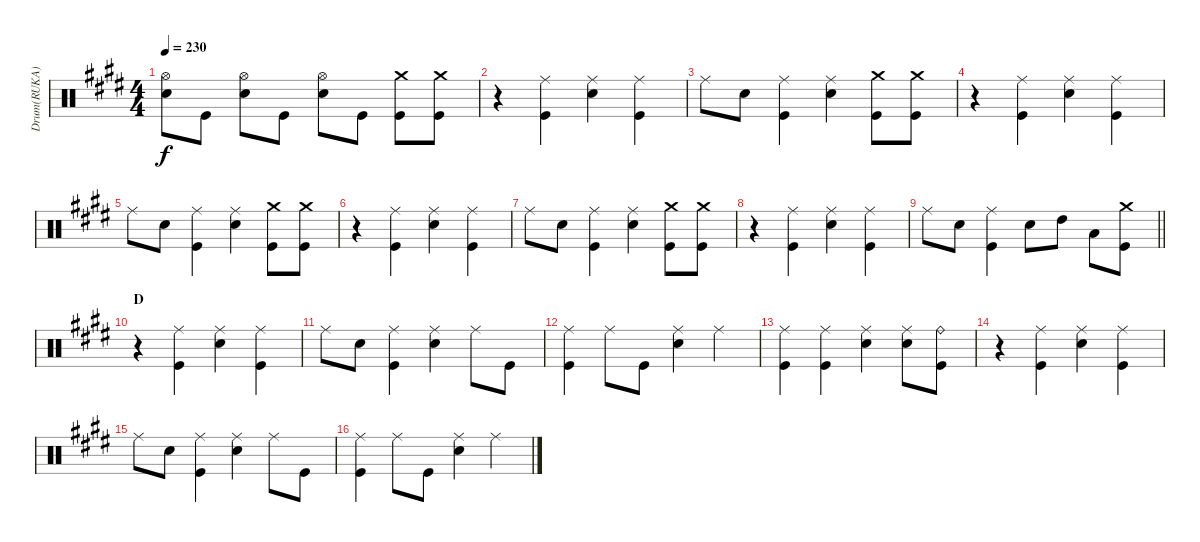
\track ("Drum(RUKA)" "Drum(RUKA)") {instrument percussion}
\staff {score}
\articulation defaults
\ts (4 4)
\tempo 230
\clef neutral
\ks e
("Hi-Hat (open)" "Electric Snare (hit)").8{dy f} "Kick (hit)".8 ("Hi-Hat (open)" "Electric Snare (hit)").8 "Kick (hit)".8 ("Hi-Hat (open)" "Electric Snare (hit)").8 "Kick (hit)".8 ("Crash medium (hit)" "Kick (hit)").8 ("Crash medium (hit)" "Kick (hit)").8 |
r.4 ("Ride (middle)" "Kick (hit)").4 ("Ride (middle)" "Electric Snare (hit)").4 ("Ride (middle)" "Kick (hit)").4 |
"Ride (middle)".8 "Electric Snare (hit)".8 ("Ride (middle)" "Kick (hit)").4 ("Ride (middle)" "Electric Snare (hit)").4 ("Crash medium (hit)" "Kick (hit)").8 ("Crash medium (hit)" "Kick (hit)").8 |
r.4 ("Ride (middle)" "Kick (hit)").4 ("Ride (middle)" "Electric Snare (hit)").4 ("Ride (middle)" "Kick (hit)").4 |
"Ride (middle)".8 "Electric Snare (hit)".8 ("Ride (middle)" "Kick (hit)").4 ("Ride (middle)" "Electric Snare (hit)").4 ("Crash medium (hit)" "Kick (hit)").8 ("Crash medium (hit)" "Kick (hit)").8 |
r.4 ("Ride (middle)" "Kick (hit)").4 ("Ride (middle)" "Electric Snare (hit)").4 ("Ride (middle)" "Kick (hit)").4 |
"Ride (middle)".8 "Electric Snare (hit)".8 ("Ride (middle)" "Kick (hit)").4 ("Ride (middle)" "Electric Snare (hit)").4 ("Crash medium (hit)" "Kick (hit)").8 ("Crash medium (hit)" "Kick (hit)").8 |
r.4 ("Ride (middle)" "Kick (hit)").4 ("Ride (middle)" "Electric Snare (hit)").4 ("Ride (middle)" "Kick (hit)").4 |
\barLineRight lightlight "Ride (middle)".8 "Electric Snare (hit)".8
("Ride (middle)" "Kick (hit)").4 "Electric Snare (hit)".8 "High Tom (hit)".8 "Low Tom (hit)".8 ("Crash medium (hit)" "Kick (hit)").8 |
\section ("" "D")
r.4 ("Ride (middle)" "Kick (hit)").4 ("Ride (middle)" "Electric Snare (hit)").4 ("Ride (middle)" "Kick (hit)").4 |
"Ride (middle)".8 "Electric Snare (hit)".8 ("Ride (middle)" "Kick (hit)").4 ("Ride (middle)" "Electric Snare (hit)").4 "Ride (middle)".8 "Kick (hit)".8 |
("Ride (middle)" "Kick (hit)").4 "Ride (middle)".8 "Kick (hit)".8 ("Ride (middle)" "Electric Snare (hit)").4 "Ride (middle)".4 |
("Ride (middle)" "Kick (hit)").4 ("Ride (middle)" "Kick (hit)").4 ("Ride (middle)" "Electric Snare (hit)").4 ("Ride (middle)" "Electric Snare (hit)").8 ("Ride (bell)" "Kick (hit)").8 |
r.4 ("Ride (middle)" "Kick (hit)").4 ("Ride (middle)" "Electric Snare (hit)").4 ("Ride (middle)" "Kick (hit)").4 |
"Ride (middle)".8 "Electric Snare (hit)".8 ("Ride (middle)" "Kick (hit)").4 ("Ride (middle)" "Electric Snare (hit)").4 "Ride (middle)".8 "Kick (hit)".8 |
("Ride (middle)" "Kick (hit)").4 "Ride (middle)".8 "Kick (hit)".8 ("Ride (middle)" "Electric Snare (hit)").4 "Ride (middle)".4
